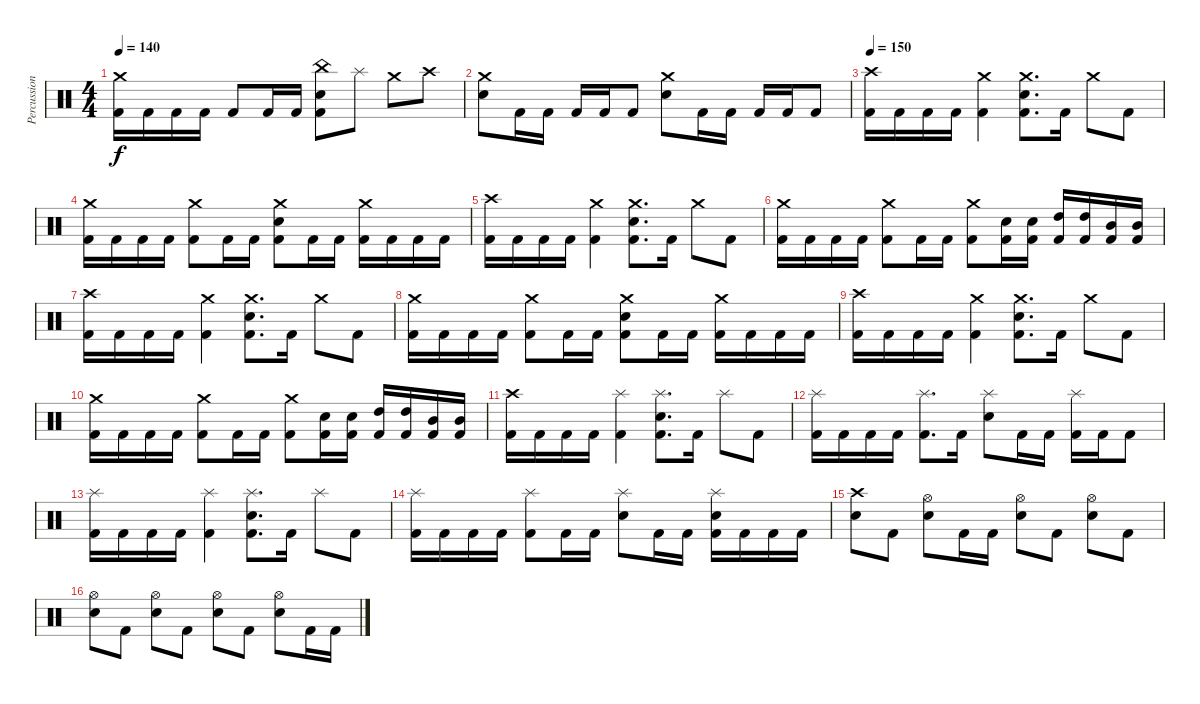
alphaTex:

\track ("Percussion" "Percussion") {instrument percussion}
\staff {score}
\articulation defaults
\ts (4 4)
\tempo 140
\clef neutral
\ks c
("Crash medium (hit)" "Kick (hit) 2").16{dy f} "Kick (hit) 2".16 "Kick (hit) 2".16 "Kick (hit) 2".16 "Kick (hit) 2".8 "Kick (hit) 2".16 "Kick (hit) 2".16 ("China (hit)" "Electric Snare (hit)" "Kick (hit) 2").8 "Splash (hit)".8 "Crash medium (hit)".8 "Crash high (hit)".8 |
("Crash medium (hit)" "Electric Snare (hit)").8 "Kick (hit) 2".16 "Kick (hit) 2".16 "Kick (hit) 2".16 "Kick (hit) 2".16 "Kick (hit) 2".8 ("Crash medium (hit)" "Electric Snare (hit)").8 "Kick (hit) 2".16 "Kick (hit) 2".16 "Kick (hit) 2".16 "Kick (hit) 2".16 "Kick (hit) 2".8 |
\tempo 150
("Crash high (hit)" "Kick (hit) 2").16 "Kick (hit) 2".16 "Kick (hit) 2".16 "Kick (hit) 2".16 ("Crash medium (hit)" "Kick (hit) 2").4 ("Crash medium (hit)" "Electric Snare (hit)" "Kick (hit) 2").8{d} "Kick (hit) 2".16 "Crash medium (hit)".8 "Kick (hit) 2".8 |
("Crash medium (hit)" "Kick (hit) 2").16 "Kick (hit) 2".16 "Kick (hit) 2".16 "Kick (hit) 2".16 ("Crash medium (hit)" "Kick (hit) 2").8 "Kick (hit) 2".16 "Kick (hit) 2".16 ("Crash medium (hit)" "Electric Snare (hit)" "Kick (hit) 2").8 "Kick (hit) 2".16 "Kick (hit) 2".16 ("Crash medium (hit)" "Kick (hit) 2").16 "Kick (hit) 2".16 "Kick (hit) 2".16 "Kick (hit) 2".16 |
("Crash high (hit)" "Kick (hit) 2").16 "Kick (hit) 2".16 "Kick (hit) 2".16 "Kick (hit) 2".16 ("Crash medium (hit)" "Kick (hit) 2").4 ("Crash medium (hit)" "Electric Snare (hit)" "Kick (hit) 2").8{d} "Kick (hit) 2".16 "Crash medium (hit)".8 "Kick (hit) 2".8 |
("Crash medium (hit)" "Kick (hit) 2").16 "Kick (hit) 2".16 "Kick (hit) 2".16 "Kick (hit) 2".16 ("Crash medium (hit)" "Kick (hit) 2").8 "Kick (hit) 2".16 "Kick (hit) 2".16 ("Crash medium (hit)" "Kick (hit) 2").8 ("Electric Snare (hit)" "Kick (hit) 2").16 ("Electric Snare (hit)" "Kick (hit) 2").16 ("High Tom (hit)" "Kick (hit) 2").16 ("High Tom (hit)" "Kick (hit) 2").16 ("Mid Tom (hit)" "Kick (hit) 2").16 ("Mid Tom (hit)" "Kick (hit) 2").16 |
("Crash high (hit)" "Kick (hit) 2").16 "Kick (hit) 2".16 "Kick (hit) 2".16 "Kick (hit) 2".16 ("Crash medium (hit)" "Kick (hit) 2").4 ("Crash medium (hit)" "Electric Snare (hit)" "Kick (hit) 2").8{d} "Kick (hit) 2".16 "Crash medium (hit)".8 "Kick (hit) 2".8 |
("Crash medium (hit)" "Kick (hit) 2").16 "Kick (hit) 2".16 "Kick (hit) 2".16 "Kick (hit) 2".16 ("Crash medium (hit)" "Kick (hit) 2").8 "Kick (hit) 2".16 "Kick (hit) 2".16 ("Crash medium (hit)" "Electric Snare (hit)" "Kick (hit) 2").8 "Kick (hit) 2".16 "Kick (hit) 2".16 ("Crash medium (hit)" "Kick (hit) 2").16 "Kick (hit) 2".16 "Kick (hit) 2".16 "Kick (hit) 2".16 |
("Crash high (hit)" "Kick (hit) 2").16 "Kick (hit) 2".16 "Kick (hit) 2".16 "Kick (hit) 2".16 ("Crash medium (hit)" "Kick (hit) 2").4 ("Crash medium (hit)" "Electric Snare (hit)" "Kick (hit) 2").8{d} "Kick (hit) 2".16 "Crash medium (hit)".8 "Kick (hit) 2".8 |
("Crash medium (hit)" "Kick (hit) 2").16 "Kick (hit) 2".16 "Kick (hit) 2".16 "Kick (hit) 2".16 ("Crash medium (hit)" "Kick (hit) 2").8 "Kick (hit) 2".16 "Kick (hit) 2".16 ("Crash medium (hit)" "Kick (hit) 2").8 ("Electric Snare (hit)" "Kick (hit) 2").16 ("Electric Snare (hit)" "Kick (hit) 2").16 ("High Tom (hit)" "Kick (hit) 2").16 ("High Tom (hit)" "Kick (hit) 2").16 ("Mid Tom (hit)" "Kick (hit) 2").16 ("Mid Tom (hit)" "Kick (hit) 2").16 |
("Crash high (hit)" "Kick (hit) 2").16 "Kick (hit) 2".16 "Kick (hit) 2".16 "Kick (hit) 2".16 ("Splash (hit)" "Kick (hit) 2").4 ("Splash (hit)" "Electric Snare (hit)" "Kick (hit) 2").8{d} "Kick (hit) 2".16 "Splash (hit)".8 "Kick (hit) 2".8 |
("Splash (hit)" "Kick (hit) 2").16 "Kick (hit) 2".16 "Kick (hit) 2".16 "Kick (hit) 2".16 ("Splash (hit)" "Kick (hit) 2").8{d} "Kick (hit) 2".16 ("Splash (hit)" "Electric Snare (hit)").8 "Kick (hit) 2".16 "Kick (hit) 2".16 ("Splash (hit)" "Kick (hit) 2").16 "Kick (hit) 2".16 "Kick (hit) 2".8 |
("Splash (hit)" "Kick (hit) 2").16 "Kick (hit) 2".16 "Kick (hit) 2".16 "Kick (hit) 2".16 ("Splash (hit)" "Kick (hit) 2").4 ("Splash (hit)" "Electric Snare (hit)" "Kick (hit) 2").8{d} "Kick (hit) 2".16 "Splash (hit)".8 "Kick (hit) 2".8 |
("Splash (hit)" "Kick (hit) 2").16 "Kick (hit) 2".16 "Kick (hit) 2".16 "Kick (hit) 2".16 ("Splash (hit)" "Kick (hit) 2").8 "Kick (hit) 2".16 "Kick (hit) 2".16 ("Splash (hit)" "Electric Snare (hit)").8 "Kick (hit) 2".16 "Kick (hit) 2".16 ("Splash (hit)" "Electric Snare (hit)" "Kick (hit) 2").16 "Kick (hit) 2".16 "Kick (hit) 2".16 "Kick (hit) 2".16 |
("Crash high (hit)" "Electric Snare (hit)").8 "Kick (hit) 2".8 ("Hi-Hat (open)" "Electric Snare (hit)").8 "Kick (hit) 2".16 "Kick (hit) 2".16 ("Hi-Hat (open)" "Electric Snare (hit)").8 "Kick (hit) 2".8 ("Hi-Hat (open)" "Electric Snare (hit)").8 "Kick (hit) 2".8 |
("Hi-Hat (open)" "Electric Snare (hit)").8 "Kick (hit) 2".8 ("Hi-Hat (open)" "Electric Snare (hit)").8 "Kick (hit) 2".8 ("Hi-Hat (open)" "Electric Snare (hit)").8 "Kick (hit) 2".8 ("Hi-Hat (open)" "Electric Snare (hit)").8 "Kick (hit) 2".16 "Kick (hit) 2".16
